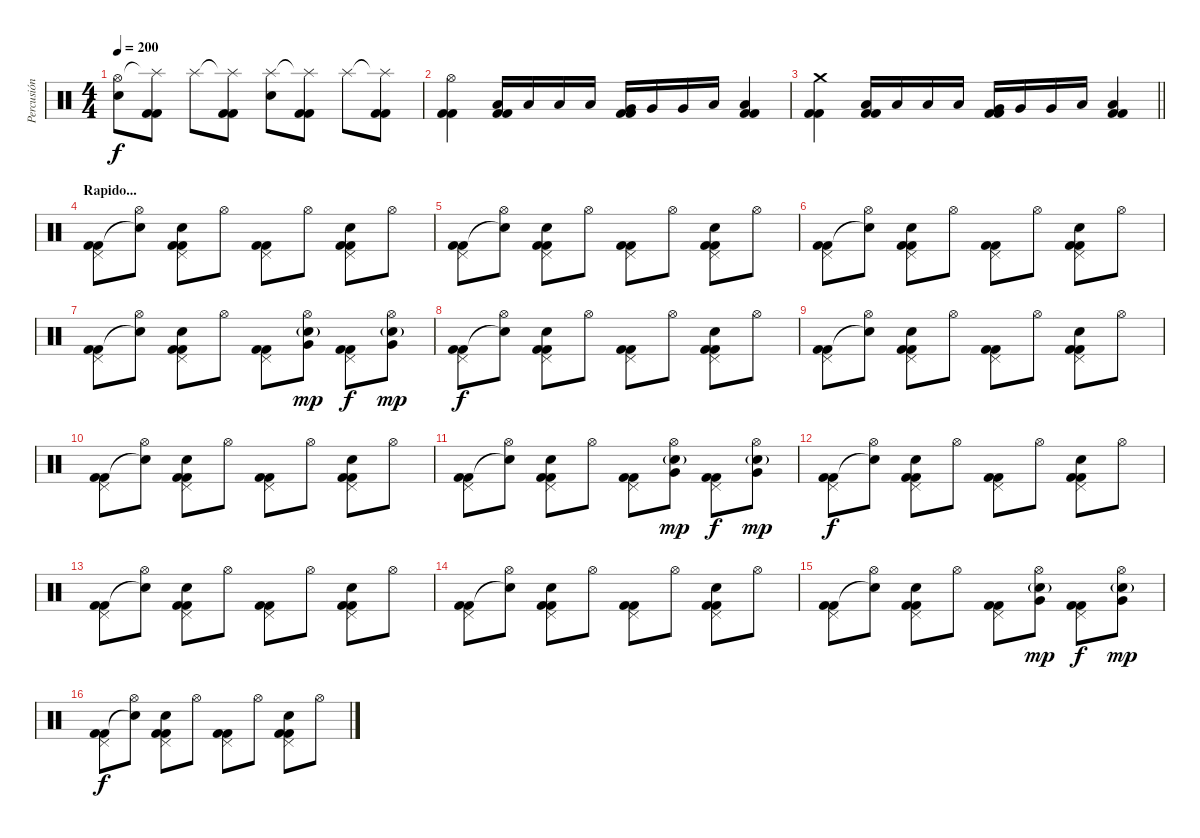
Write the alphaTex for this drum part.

\track ("Percusión" "Percusión") {instrument percussion}
\staff {score}
\articulation defaults
\ts (4 4)
\tempo 200
\clef neutral
\ks c
("Hi-Hat (open)" "Electric Snare (hit)").8{dy f} ("Splash (hit)"{t} "Kick (hit) 2" "Kick (hit) 2").8 "Splash (hit)".8 ("Splash (hit)"{t} "Kick (hit) 2" "Kick (hit) 2").8 ("Splash (hit)" "Electric Snare (hit)").8 ("Splash (hit)"{t} "Kick (hit) 2" "Kick (hit) 2").8 "Splash (hit)".8 ("Splash (hit)"{t} "Kick (hit) 2" "Kick (hit) 2").8 |
("Hi-Hat (open)" "Kick (hit) 2" "Kick (hit) 2").4 ("Low Tom (hit)" "Kick (hit) 2" "Kick (hit) 2").16 "Low Tom (hit)".16 "Low Tom (hit)".16 "Low Tom (hit)".16 ("Very Low Tom (hit)" "Kick (hit) 2" "Kick (hit) 2").16 "Very Low Tom (hit)".16 "Very Low Tom (hit)".16 "Low Floor Tom (hit)".16 ("Low Floor Tom (hit)" "Kick (hit) 2" "Kick (hit) 2").4 |
\barLineRight lightlight
("Crash medium (hit)" "Kick (hit) 2" "Kick (hit) 2").4 ("Low Tom (hit)" "Kick (hit) 2" "Kick (hit) 2").16 "Low Tom (hit)".16 "Low Tom (hit)".16 "Low Tom (hit)".16 ("Very Low Tom (hit)" "Kick (hit) 2" "Kick (hit) 2").16 "Very Low Tom (hit)".16 "Very Low Tom (hit)".16 "Low Floor Tom (hit)".16 ("Low Floor Tom (hit)" "Kick (hit) 2" "Kick (hit) 2").4 |
\section ("" "Rapido...")
("Pedal Hi-Hat (hit)" "Kick (hit) 2" "Kick (hit) 2").8 ("Hi-Hat (open)" "Snare (hit)"{t}).8 ("Pedal Hi-Hat (hit)" "Electric Snare (hit)" "Kick (hit) 2" "Kick (hit) 2").8 "Hi-Hat (open)".8 ("Pedal Hi-Hat (hit)" "Kick (hit) 2" "Kick (hit) 2").8 "Hi-Hat (open)".8 ("Pedal Hi-Hat (hit)" "Electric Snare (hit)" "Kick (hit) 2" "Kick (hit) 2").8 "Hi-Hat (open)".8 |
("Pedal Hi-Hat (hit)" "Kick (hit) 2" "Kick (hit) 2").8 ("Hi-Hat (open)" "Snare (hit)"{t}).8 ("Pedal Hi-Hat (hit)" "Electric Snare (hit)" "Kick (hit) 2" "Kick (hit) 2").8 "Hi-Hat (open)".8 ("Pedal Hi-Hat (hit)" "Kick (hit) 2" "Kick (hit) 2").8 "Hi-Hat (open)".8 ("Pedal Hi-Hat (hit)" "Electric Snare (hit)" "Kick (hit) 2" "Kick (hit) 2").8 "Hi-Hat (open)".8 |
("Pedal Hi-Hat (hit)" "Kick (hit) 2" "Kick (hit) 2").8 ("Hi-Hat (open)" "Snare (hit)"{t}).8 ("Pedal Hi-Hat (hit)" "Electric Snare (hit)" "Kick (hit) 2" "Kick (hit) 2").8 "Hi-Hat (open)".8 ("Pedal Hi-Hat (hit)" "Kick (hit) 2" "Kick (hit) 2").8 "Hi-Hat (open)".8 ("Pedal Hi-Hat (hit)" "Electric Snare (hit)" "Kick (hit) 2" "Kick (hit) 2").8 "Hi-Hat (open)".8 |
("Pedal Hi-Hat (hit)" "Kick (hit) 2" "Kick (hit) 2").8 ("Hi-Hat (open)" "Snare (hit)"{t}).8 ("Pedal Hi-Hat (hit)" "Electric Snare (hit)" "Kick (hit) 2" "Kick (hit) 2").8 "Hi-Hat (open)".8 ("Pedal Hi-Hat (hit)" "Kick (hit) 2" "Kick (hit) 2").8 ("Hi-Hat (open)" "Very Low Tom (hit)" "Electric Snare (hit)"{g}).8{dy mp} ("Pedal Hi-Hat (hit)" "Kick (hit) 2" "Kick (hit) 2").8{dy f} ("Hi-Hat (open)" "Very Low Tom (hit)" "Electric Snare (hit)"{g}).8{dy mp} |
("Pedal Hi-Hat (hit)" "Kick (hit) 2" "Kick (hit) 2").8{dy f} ("Hi-Hat (open)" "Snare (hit)"{t}).8 ("Pedal Hi-Hat (hit)" "Electric Snare (hit)" "Kick (hit) 2" "Kick (hit) 2").8 "Hi-Hat (open)".8 ("Pedal Hi-Hat (hit)" "Kick (hit) 2" "Kick (hit) 2").8 "Hi-Hat (open)".8 ("Pedal Hi-Hat (hit)" "Electric Snare (hit)" "Kick (hit) 2" "Kick (hit) 2").8 "Hi-Hat (open)".8 |
("Pedal Hi-Hat (hit)" "Kick (hit) 2" "Kick (hit) 2").8 ("Hi-Hat (open)" "Snare (hit)"{t}).8 ("Pedal Hi-Hat (hit)" "Electric Snare (hit)" "Kick (hit) 2" "Kick (hit) 2").8 "Hi-Hat (open)".8 ("Pedal Hi-Hat (hit)" "Kick (hit) 2" "Kick (hit) 2").8 "Hi-Hat (open)".8 ("Pedal Hi-Hat (hit)" "Electric Snare (hit)" "Kick (hit) 2" "Kick (hit) 2").8 "Hi-Hat (open)".8 |
("Pedal Hi-Hat (hit)" "Kick (hit) 2" "Kick (hit) 2").8 ("Hi-Hat (open)" "Snare (hit)"{t}).8 ("Pedal Hi-Hat (hit)" "Electric Snare (hit)" "Kick (hit) 2" "Kick (hit) 2").8 "Hi-Hat (open)".8 ("Pedal Hi-Hat (hit)" "Kick (hit) 2" "Kick (hit) 2").8 "Hi-Hat (open)".8 ("Pedal Hi-Hat (hit)" "Electric Snare (hit)" "Kick (hit) 2" "Kick (hit) 2").8 "Hi-Hat (open)".8 |
("Pedal Hi-Hat (hit)" "Kick (hit) 2" "Kick (hit) 2").8 ("Hi-Hat (open)" "Snare (hit)"{t}).8 ("Pedal Hi-Hat (hit)" "Electric Snare (hit)" "Kick (hit) 2" "Kick (hit) 2").8 "Hi-Hat (open)".8 ("Pedal Hi-Hat (hit)" "Kick (hit) 2" "Kick (hit) 2").8 ("Hi-Hat (open)" "Very Low Tom (hit)" "Electric Snare (hit)"{g}).8{dy mp} ("Pedal Hi-Hat (hit)" "Kick (hit) 2" "Kick (hit) 2").8{dy f} ("Hi-Hat (open)" "Very Low Tom (hit)" "Electric Snare (hit)"{g}).8{dy mp} |
("Pedal Hi-Hat (hit)" "Kick (hit) 2" "Kick (hit) 2").8{dy f} ("Hi-Hat (open)" "Snare (hit)"{t}).8 ("Pedal Hi-Hat (hit)" "Electric Snare (hit)" "Kick (hit) 2" "Kick (hit) 2").8 "Hi-Hat (open)".8 ("Pedal Hi-Hat (hit)" "Kick (hit) 2" "Kick (hit) 2").8 "Hi-Hat (open)".8 ("Pedal Hi-Hat (hit)" "Electric Snare (hit)" "Kick (hit) 2" "Kick (hit) 2").8 "Hi-Hat (open)".8 |
("Pedal Hi-Hat (hit)" "Kick (hit) 2" "Kick (hit) 2").8 ("Hi-Hat (open)" "Snare (hit)"{t}).8 ("Pedal Hi-Hat (hit)" "Electric Snare (hit)" "Kick (hit) 2" "Kick (hit) 2").8 "Hi-Hat (open)".8 ("Pedal Hi-Hat (hit)" "Kick (hit) 2" "Kick (hit) 2").8 "Hi-Hat (open)".8 ("Pedal Hi-Hat (hit)" "Electric Snare (hit)" "Kick (hit) 2" "Kick (hit) 2").8 "Hi-Hat (open)".8 |
("Pedal Hi-Hat (hit)" "Kick (hit) 2" "Kick (hit) 2").8 ("Hi-Hat (open)" "Snare (hit)"{t}).8 ("Pedal Hi-Hat (hit)" "Electric Snare (hit)" "Kick (hit) 2" "Kick (hit) 2").8 "Hi-Hat (open)".8 ("Pedal Hi-Hat (hit)" "Kick (hit) 2" "Kick (hit) 2").8 "Hi-Hat (open)".8 ("Pedal Hi-Hat (hit)" "Electric Snare (hit)" "Kick (hit) 2" "Kick (hit) 2").8 "Hi-Hat (open)".8 |
("Pedal Hi-Hat (hit)" "Kick (hit) 2" "Kick (hit) 2").8 ("Hi-Hat (open)" "Snare (hit)"{t}).8 ("Pedal Hi-Hat (hit)" "Electric Snare (hit)" "Kick (hit) 2" "Kick (hit) 2").8 "Hi-Hat (open)".8 ("Pedal Hi-Hat (hit)" "Kick (hit) 2" "Kick (hit) 2").8 ("Hi-Hat (open)" "Very Low Tom (hit)" "Electric Snare (hit)"{g}).8{dy mp} ("Pedal Hi-Hat (hit)" "Kick (hit) 2" "Kick (hit) 2").8{dy f} ("Hi-Hat (open)" "Very Low Tom (hit)" "Electric Snare (hit)"{g}).8{dy mp} |
("Pedal Hi-Hat (hit)" "Kick (hit) 2" "Kick (hit) 2").8{dy f} ("Hi-Hat (open)" "Snare (hit)"{t}).8 ("Pedal Hi-Hat (hit)" "Electric Snare (hit)" "Kick (hit) 2" "Kick (hit) 2").8 "Hi-Hat (open)".8 ("Pedal Hi-Hat (hit)" "Kick (hit) 2" "Kick (hit) 2").8 "Hi-Hat (open)".8 ("Pedal Hi-Hat (hit)" "Electric Snare (hit)" "Kick (hit) 2" "Kick (hit) 2").8 "Hi-Hat (open)".8
